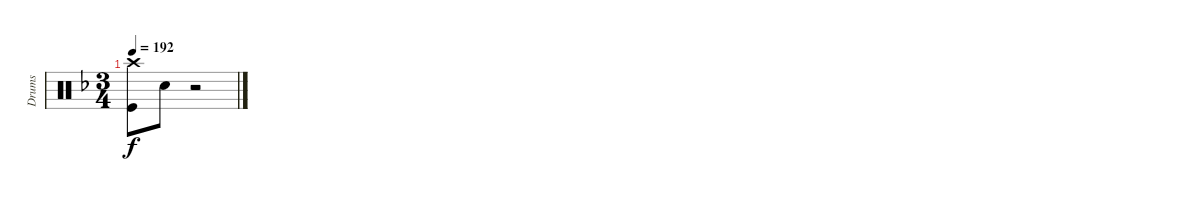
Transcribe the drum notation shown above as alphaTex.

\track ("Drums" "Drums") {instrument percussion}
\staff {score}
\articulation defaults
\ts (3 4)
\tempo 192
\clef neutral
\ks f
("Crash high (hit)" "Kick (hit)").8{dy f volume 13} "Snare (hit)"{x}.8{volume 0} r.2
